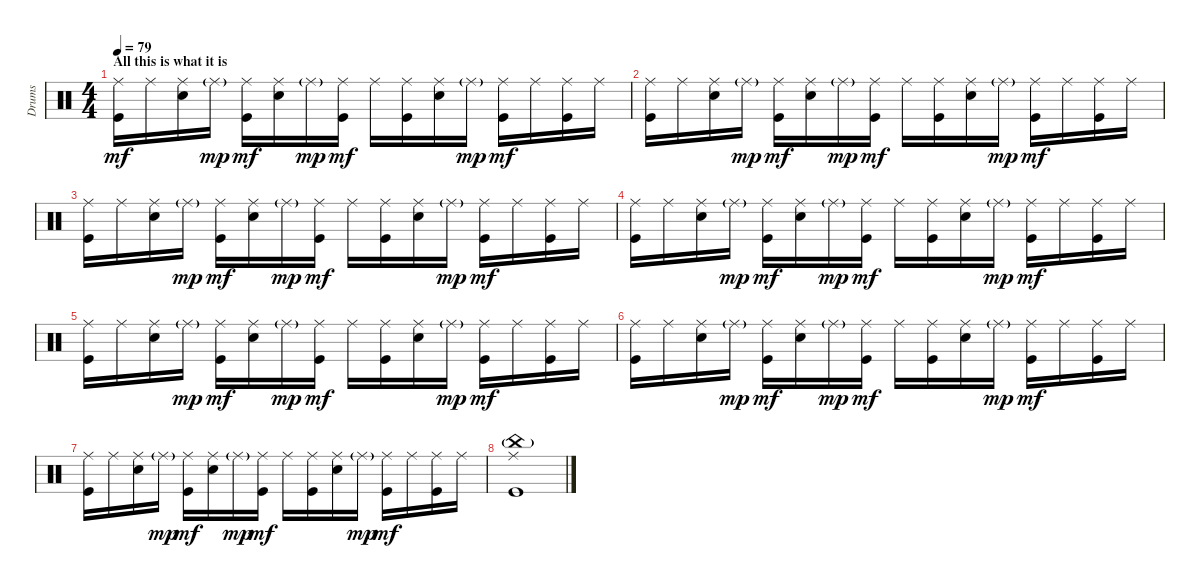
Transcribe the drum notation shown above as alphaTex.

\track ("Drums" "Drums") {instrument percussion}
\staff {score}
\articulation defaults
\ts (4 4)
\section ("" "All this is what it is")
\tempo 79
\clef neutral
\ks c
("Ride (middle)" "Kick (hit)").16{dy mf} "Ride (middle)".16 ("Ride (middle)" "Electric Snare (hit)").16 "Ride (middle)"{g}.16{dy mp} ("Ride (middle)" "Kick (hit)").16{dy mf} ("Ride (middle)" "Electric Snare (hit)").16 "Ride (middle)"{g}.16{dy mp} ("Ride (middle)" "Kick (hit)").16{dy mf} "Ride (middle)".16 ("Ride (middle)" "Kick (hit)").16 ("Ride (middle)" "Electric Snare (hit)").16 "Ride (middle)"{g}.16{dy mp} ("Ride (middle)" "Kick (hit)").16{dy mf} "Ride (middle)".16 ("Ride (middle)" "Kick (hit)").16 "Ride (middle)".16 |
("Ride (middle)" "Kick (hit)").16 "Ride (middle)".16 ("Ride (middle)" "Electric Snare (hit)").16 "Ride (middle)"{g}.16{dy mp} ("Ride (middle)" "Kick (hit)").16{dy mf} ("Ride (middle)" "Electric Snare (hit)").16 "Ride (middle)"{g}.16{dy mp} ("Ride (middle)" "Kick (hit)").16{dy mf} "Ride (middle)".16 ("Ride (middle)" "Kick (hit)").16 ("Ride (middle)" "Electric Snare (hit)").16 "Ride (middle)"{g}.16{dy mp} ("Ride (middle)" "Kick (hit)").16{dy mf} "Ride (middle)".16 ("Ride (middle)" "Kick (hit)").16 "Ride (middle)".16 |
("Ride (middle)" "Kick (hit)").16 "Ride (middle)".16 ("Ride (middle)" "Electric Snare (hit)").16 "Ride (middle)"{g}.16{dy mp} ("Ride (middle)" "Kick (hit)").16{dy mf} ("Ride (middle)" "Electric Snare (hit)").16 "Ride (middle)"{g}.16{dy mp} ("Ride (middle)" "Kick (hit)").16{dy mf} "Ride (middle)".16 ("Ride (middle)" "Kick (hit)").16 ("Ride (middle)" "Electric Snare (hit)").16 "Ride (middle)"{g}.16{dy mp} ("Ride (middle)" "Kick (hit)").16{dy mf} "Ride (middle)".16 ("Ride (middle)" "Kick (hit)").16 "Ride (middle)".16 |
("Ride (middle)" "Kick (hit)").16 "Ride (middle)".16 ("Ride (middle)" "Electric Snare (hit)").16 "Ride (middle)"{g}.16{dy mp} ("Ride (middle)" "Kick (hit)").16{dy mf} ("Ride (middle)" "Electric Snare (hit)").16 "Ride (middle)"{g}.16{dy mp} ("Ride (middle)" "Kick (hit)").16{dy mf} "Ride (middle)".16 ("Ride (middle)" "Kick (hit)").16 ("Ride (middle)" "Electric Snare (hit)").16 "Ride (middle)"{g}.16{dy mp} ("Ride (middle)" "Kick (hit)").16{dy mf} "Ride (middle)".16 ("Ride (middle)" "Kick (hit)").16 "Ride (middle)".16 |
("Ride (middle)" "Kick (hit)").16 "Ride (middle)".16 ("Ride (middle)" "Electric Snare (hit)").16 "Ride (middle)"{g}.16{dy mp} ("Ride (middle)" "Kick (hit)").16{dy mf} ("Ride (middle)" "Electric Snare (hit)").16 "Ride (middle)"{g}.16{dy mp} ("Ride (middle)" "Kick (hit)").16{dy mf} "Ride (middle)".16 ("Ride (middle)" "Kick (hit)").16 ("Ride (middle)" "Electric Snare (hit)").16 "Ride (middle)"{g}.16{dy mp} ("Ride (middle)" "Kick (hit)").16{dy mf} "Ride (middle)".16 ("Ride (middle)" "Kick (hit)").16 "Ride (middle)".16 |
("Ride (middle)" "Kick (hit)").16 "Ride (middle)".16 ("Ride (middle)" "Electric Snare (hit)").16 "Ride (middle)"{g}.16{dy mp} ("Ride (middle)" "Kick (hit)").16{dy mf} ("Ride (middle)" "Electric Snare (hit)").16 "Ride (middle)"{g}.16{dy mp} ("Ride (middle)" "Kick (hit)").16{dy mf} "Ride (middle)".16 ("Ride (middle)" "Kick (hit)").16 ("Ride (middle)" "Electric Snare (hit)").16 "Ride (middle)"{g}.16{dy mp} ("Ride (middle)" "Kick (hit)").16{dy mf} "Ride (middle)".16 ("Ride (middle)" "Kick (hit)").16 "Ride (middle)".16 |
("Ride (middle)" "Kick (hit)").16 "Ride (middle)".16 ("Ride (middle)" "Electric Snare (hit)").16 "Ride (middle)"{g}.16{dy mp} ("Ride (middle)" "Kick (hit)").16{dy mf} ("Ride (middle)" "Electric Snare (hit)").16 "Ride (middle)"{g}.16{dy mp} ("Ride (middle)" "Kick (hit)").16{dy mf} "Ride (middle)".16 ("Ride (middle)" "Kick (hit)").16 ("Ride (middle)" "Electric Snare (hit)").16 "Ride (middle)"{g}.16{dy mp} ("Ride (middle)" "Kick (hit)").16{dy mf} "Ride (middle)".16 ("Ride (middle)" "Kick (hit)").16 "Ride (middle)".16 |
("Ride (middle)" "China (hit)"{g} "Kick (hit)").1
